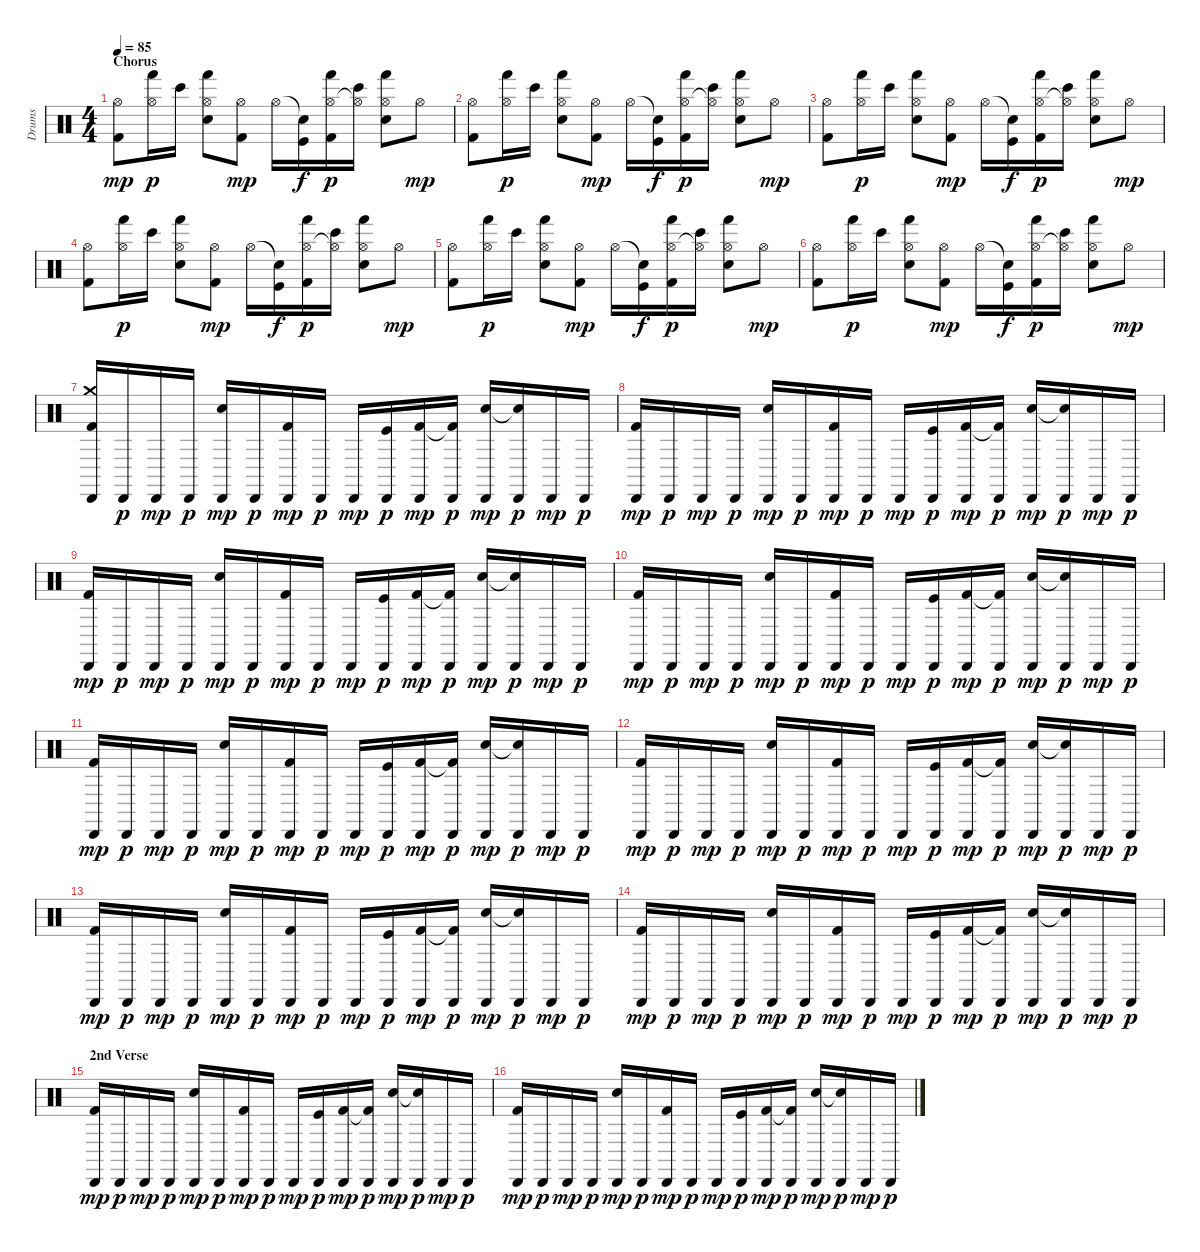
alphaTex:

\track ("Drums" "Drums") {instrument percussion}
\staff {score}
\articulation defaults
\ts (4 4)
\section ("" "Chorus")
\tempo 85
\clef neutral
\ks c
("Hi-Hat (open)" "Kick (hit) 2").8{dy mp} ("Hi-Hat (open)" "Hand (hit)").16{dy p} "Bongo High (hit)".16 ("Hi-Hat (open)" "Snare (hit) 2" "Hand (hit)").8 ("Hi-Hat (open)" "Kick (hit) 2").8{dy mp} "Hi-Hat (open)".16 ("Snare (hit)"{t} "Kick (hit)").16{dy f} ("Hi-Hat (open)" "Kick (hit) 2" "Hand (hit)").16{dy p} ("Hi-Hat (open)"{t} "Bongo High (hit)").16 ("Hi-Hat (open)" "Snare (hit) 2" "Hand (hit)").8 "Hi-Hat (open)".8{dy mp} |
("Hi-Hat (open)" "Kick (hit) 2").8 ("Hi-Hat (open)" "Hand (hit)").16{dy p} "Bongo High (hit)".16 ("Hi-Hat (open)" "Snare (hit) 2" "Hand (hit)").8 ("Hi-Hat (open)" "Kick (hit) 2").8{dy mp} "Hi-Hat (open)".16 ("Snare (hit)"{t} "Kick (hit)").16{dy f} ("Hi-Hat (open)" "Kick (hit) 2" "Hand (hit)").16{dy p} ("Hi-Hat (open)"{t} "Bongo High (hit)").16 ("Hi-Hat (open)" "Snare (hit) 2" "Hand (hit)").8 "Hi-Hat (open)".8{dy mp} |
("Hi-Hat (open)" "Kick (hit) 2").8 ("Hi-Hat (open)" "Hand (hit)").16{dy p} "Bongo High (hit)".16 ("Hi-Hat (open)" "Snare (hit) 2" "Hand (hit)").8 ("Hi-Hat (open)" "Kick (hit) 2").8{dy mp} "Hi-Hat (open)".16 ("Snare (hit)"{t} "Kick (hit)").16{dy f} ("Hi-Hat (open)" "Kick (hit) 2" "Hand (hit)").16{dy p} ("Hi-Hat (open)"{t} "Bongo High (hit)").16 ("Hi-Hat (open)" "Snare (hit) 2" "Hand (hit)").8 "Hi-Hat (open)".8{dy mp} |
("Hi-Hat (open)" "Kick (hit) 2").8 ("Hi-Hat (open)" "Hand (hit)").16{dy p} "Bongo High (hit)".16 ("Hi-Hat (open)" "Snare (hit) 2" "Hand (hit)").8 ("Hi-Hat (open)" "Kick (hit) 2").8{dy mp} "Hi-Hat (open)".16 ("Snare (hit)"{t} "Kick (hit)").16{dy f} ("Hi-Hat (open)" "Kick (hit) 2" "Hand (hit)").16{dy p} ("Hi-Hat (open)"{t} "Bongo High (hit)").16 ("Hi-Hat (open)" "Snare (hit) 2" "Hand (hit)").8 "Hi-Hat (open)".8{dy mp} |
("Hi-Hat (open)" "Kick (hit) 2").8 ("Hi-Hat (open)" "Hand (hit)").16{dy p} "Bongo High (hit)".16 ("Hi-Hat (open)" "Snare (hit) 2" "Hand (hit)").8 ("Hi-Hat (open)" "Kick (hit) 2").8{dy mp} "Hi-Hat (open)".16 ("Snare (hit)"{t} "Kick (hit)").16{dy f} ("Hi-Hat (open)" "Kick (hit) 2" "Hand (hit)").16{dy p} ("Hi-Hat (open)"{t} "Bongo High (hit)").16 ("Hi-Hat (open)" "Snare (hit) 2" "Hand (hit)").8 "Hi-Hat (open)".8{dy mp} |
("Hi-Hat (open)" "Kick (hit) 2").8 ("Hi-Hat (open)" "Hand (hit)").16{dy p} "Bongo High (hit)".16 ("Hi-Hat (open)" "Snare (hit) 2" "Hand (hit)").8 ("Hi-Hat (open)" "Kick (hit) 2").8{dy mp} "Hi-Hat (open)".16 ("Snare (hit)"{t} "Kick (hit)").16{dy f} ("Hi-Hat (open)" "Kick (hit) 2" "Hand (hit)").16{dy p} ("Hi-Hat (open)"{t} "Bongo High (hit)").16 ("Hi-Hat (open)" "Snare (hit) 2" "Hand (hit)").8 "Hi-Hat (open)".8{dy mp} |
("Kick (hit) 2" "Cabasa (hit)" "Crash medium (hit)").16 "Cabasa (hit)".16{dy p} "Cabasa (hit)".16{dy mp} "Cabasa (hit)".16{dy p} ("Snare (hit) 2" "Cabasa (hit)").16{dy mp} "Cabasa (hit)".16{dy p} ("Kick (hit) 2" "Cabasa (hit)").16{dy mp} "Cabasa (hit)".16{dy p} "Cabasa (hit)".16{dy mp} ("Cabasa (hit)" "Kick (hit)").16{dy p} ("Kick (hit) 2" "Cabasa (hit)").16{dy mp} ("Kick (hit) 2"{t} "Cabasa (hit)").16{dy p} ("Snare (hit) 2" "Cabasa (hit)").16{dy mp} ("Snare (hit) 2"{t} "Cabasa (hit)").16{dy p} "Cabasa (hit)".16{dy mp} "Cabasa (hit)".16{dy p} |
("Kick (hit) 2" "Cabasa (hit)").16{dy mp} "Cabasa (hit)".16{dy p} "Cabasa (hit)".16{dy mp} "Cabasa (hit)".16{dy p} ("Snare (hit) 2" "Cabasa (hit)").16{dy mp} "Cabasa (hit)".16{dy p} ("Kick (hit) 2" "Cabasa (hit)").16{dy mp} "Cabasa (hit)".16{dy p} "Cabasa (hit)".16{dy mp} ("Cabasa (hit)" "Kick (hit)").16{dy p} ("Kick (hit) 2" "Cabasa (hit)").16{dy mp} ("Kick (hit) 2"{t} "Cabasa (hit)").16{dy p} ("Snare (hit) 2" "Cabasa (hit)").16{dy mp} ("Snare (hit) 2"{t} "Cabasa (hit)").16{dy p} "Cabasa (hit)".16{dy mp} "Cabasa (hit)".16{dy p} |
("Kick (hit) 2" "Cabasa (hit)").16{dy mp} "Cabasa (hit)".16{dy p} "Cabasa (hit)".16{dy mp} "Cabasa (hit)".16{dy p} ("Snare (hit) 2" "Cabasa (hit)").16{dy mp} "Cabasa (hit)".16{dy p} ("Kick (hit) 2" "Cabasa (hit)").16{dy mp} "Cabasa (hit)".16{dy p} "Cabasa (hit)".16{dy mp} ("Cabasa (hit)" "Kick (hit)").16{dy p} ("Kick (hit) 2" "Cabasa (hit)").16{dy mp} ("Kick (hit) 2"{t} "Cabasa (hit)").16{dy p} ("Snare (hit) 2" "Cabasa (hit)").16{dy mp} ("Snare (hit) 2"{t} "Cabasa (hit)").16{dy p} "Cabasa (hit)".16{dy mp} "Cabasa (hit)".16{dy p} |
("Kick (hit) 2" "Cabasa (hit)").16{dy mp} "Cabasa (hit)".16{dy p} "Cabasa (hit)".16{dy mp} "Cabasa (hit)".16{dy p} ("Snare (hit) 2" "Cabasa (hit)").16{dy mp} "Cabasa (hit)".16{dy p} ("Kick (hit) 2" "Cabasa (hit)").16{dy mp} "Cabasa (hit)".16{dy p} "Cabasa (hit)".16{dy mp} ("Cabasa (hit)" "Kick (hit)").16{dy p} ("Kick (hit) 2" "Cabasa (hit)").16{dy mp} ("Kick (hit) 2"{t} "Cabasa (hit)").16{dy p} ("Snare (hit) 2" "Cabasa (hit)").16{dy mp} ("Snare (hit) 2"{t} "Cabasa (hit)").16{dy p} "Cabasa (hit)".16{dy mp} "Cabasa (hit)".16{dy p} |
("Kick (hit) 2" "Cabasa (hit)").16{dy mp} "Cabasa (hit)".16{dy p} "Cabasa (hit)".16{dy mp} "Cabasa (hit)".16{dy p} ("Snare (hit) 2" "Cabasa (hit)").16{dy mp} "Cabasa (hit)".16{dy p} ("Kick (hit) 2" "Cabasa (hit)").16{dy mp} "Cabasa (hit)".16{dy p} "Cabasa (hit)".16{dy mp} ("Cabasa (hit)" "Kick (hit)").16{dy p} ("Kick (hit) 2" "Cabasa (hit)").16{dy mp} ("Kick (hit) 2"{t} "Cabasa (hit)").16{dy p} ("Snare (hit) 2" "Cabasa (hit)").16{dy mp} ("Snare (hit) 2"{t} "Cabasa (hit)").16{dy p} "Cabasa (hit)".16{dy mp} "Cabasa (hit)".16{dy p} |
("Kick (hit) 2" "Cabasa (hit)").16{dy mp} "Cabasa (hit)".16{dy p} "Cabasa (hit)".16{dy mp} "Cabasa (hit)".16{dy p} ("Snare (hit) 2" "Cabasa (hit)").16{dy mp} "Cabasa (hit)".16{dy p} ("Kick (hit) 2" "Cabasa (hit)").16{dy mp} "Cabasa (hit)".16{dy p} "Cabasa (hit)".16{dy mp} ("Cabasa (hit)" "Kick (hit)").16{dy p} ("Kick (hit) 2" "Cabasa (hit)").16{dy mp} ("Kick (hit) 2"{t} "Cabasa (hit)").16{dy p} ("Snare (hit) 2" "Cabasa (hit)").16{dy mp} ("Snare (hit) 2"{t} "Cabasa (hit)").16{dy p} "Cabasa (hit)".16{dy mp} "Cabasa (hit)".16{dy p} |
("Kick (hit) 2" "Cabasa (hit)").16{dy mp} "Cabasa (hit)".16{dy p} "Cabasa (hit)".16{dy mp} "Cabasa (hit)".16{dy p} ("Snare (hit) 2" "Cabasa (hit)").16{dy mp} "Cabasa (hit)".16{dy p} ("Kick (hit) 2" "Cabasa (hit)").16{dy mp} "Cabasa (hit)".16{dy p} "Cabasa (hit)".16{dy mp} ("Cabasa (hit)" "Kick (hit)").16{dy p} ("Kick (hit) 2" "Cabasa (hit)").16{dy mp} ("Kick (hit) 2"{t} "Cabasa (hit)").16{dy p} ("Snare (hit) 2" "Cabasa (hit)").16{dy mp} ("Snare (hit) 2"{t} "Cabasa (hit)").16{dy p} "Cabasa (hit)".16{dy mp} "Cabasa (hit)".16{dy p} |
("Kick (hit) 2" "Cabasa (hit)").16{dy mp} "Cabasa (hit)".16{dy p} "Cabasa (hit)".16{dy mp} "Cabasa (hit)".16{dy p} ("Snare (hit) 2" "Cabasa (hit)").16{dy mp} "Cabasa (hit)".16{dy p} ("Kick (hit) 2" "Cabasa (hit)").16{dy mp} "Cabasa (hit)".16{dy p} "Cabasa (hit)".16{dy mp} ("Cabasa (hit)" "Kick (hit)").16{dy p} ("Kick (hit) 2" "Cabasa (hit)").16{dy mp} ("Kick (hit) 2"{t} "Cabasa (hit)").16{dy p} ("Snare (hit) 2" "Cabasa (hit)").16{dy mp} ("Snare (hit) 2"{t} "Cabasa (hit)").16{dy p} "Cabasa (hit)".16{dy mp} "Cabasa (hit)".16{dy p} |
\section ("" "2nd Verse")
("Kick (hit) 2" "Cabasa (hit)").16{dy mp} "Cabasa (hit)".16{dy p} "Cabasa (hit)".16{dy mp} "Cabasa (hit)".16{dy p} ("Snare (hit) 2" "Cabasa (hit)").16{dy mp} "Cabasa (hit)".16{dy p} ("Kick (hit) 2" "Cabasa (hit)").16{dy mp} "Cabasa (hit)".16{dy p} "Cabasa (hit)".16{dy mp} ("Cabasa (hit)" "Kick (hit)").16{dy p} ("Kick (hit) 2" "Cabasa (hit)").16{dy mp} ("Kick (hit) 2"{t} "Cabasa (hit)").16{dy p} ("Snare (hit) 2" "Cabasa (hit)").16{dy mp} ("Snare (hit) 2"{t} "Cabasa (hit)").16{dy p} "Cabasa (hit)".16{dy mp} "Cabasa (hit)".16{dy p} |
("Kick (hit) 2" "Cabasa (hit)").16{dy mp} "Cabasa (hit)".16{dy p} "Cabasa (hit)".16{dy mp} "Cabasa (hit)".16{dy p} ("Snare (hit) 2" "Cabasa (hit)").16{dy mp} "Cabasa (hit)".16{dy p} ("Kick (hit) 2" "Cabasa (hit)").16{dy mp} "Cabasa (hit)".16{dy p} "Cabasa (hit)".16{dy mp} ("Cabasa (hit)" "Kick (hit)").16{dy p} ("Kick (hit) 2" "Cabasa (hit)").16{dy mp} ("Kick (hit) 2"{t} "Cabasa (hit)").16{dy p} ("Snare (hit) 2" "Cabasa (hit)").16{dy mp} ("Snare (hit) 2"{t} "Cabasa (hit)").16{dy p} "Cabasa (hit)".16{dy mp} "Cabasa (hit)".16{dy p}
